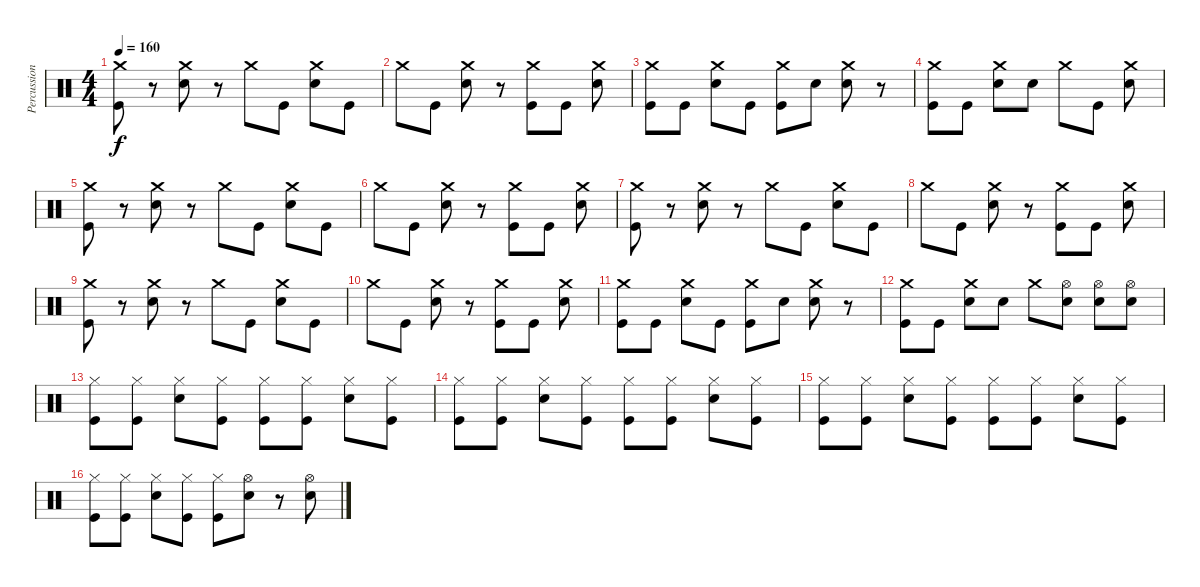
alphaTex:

\track ("Percussion" "Percussion") {instrument percussion}
\staff {score}
\articulation defaults
\ts (4 4)
\tempo 160
\clef neutral
\ks c
("Crash medium (hit)" "Kick (hit)").8{dy f} r.8 ("Crash medium (hit)" "Electric Snare (hit)").8 r.8 "Crash medium (hit)".8 "Kick (hit)".8 ("Crash medium (hit)" "Electric Snare (hit)").8 "Kick (hit)".8 |
"Crash medium (hit)".8 "Kick (hit)".8 ("Crash medium (hit)" "Electric Snare (hit)").8 r.8 ("Crash medium (hit)" "Kick (hit)").8 "Kick (hit)".8 ("Crash medium (hit)" "Electric Snare (hit)").8 |
("Crash medium (hit)" "Kick (hit)").8 "Kick (hit)".8 ("Crash medium (hit)" "Electric Snare (hit)").8 "Kick (hit)".8 ("Crash medium (hit)" "Kick (hit)").8 "Electric Snare (hit)".8 ("Crash medium (hit)" "Electric Snare (hit)").8 r.8 |
("Crash medium (hit)" "Kick (hit)").8 "Kick (hit)".8 ("Crash medium (hit)" "Electric Snare (hit)").8 "Electric Snare (hit)".8 "Crash medium (hit)".8 "Kick (hit)".8 ("Crash medium (hit)" "Electric Snare (hit)").8 |
("Crash medium (hit)" "Kick (hit)").8 r.8 ("Crash medium (hit)" "Electric Snare (hit)").8 r.8 "Crash medium (hit)".8 "Kick (hit)".8 ("Crash medium (hit)" "Electric Snare (hit)").8 "Kick (hit)".8 |
"Crash medium (hit)".8 "Kick (hit)".8 ("Crash medium (hit)" "Electric Snare (hit)").8 r.8 ("Crash medium (hit)" "Kick (hit)").8 "Kick (hit)".8 ("Crash medium (hit)" "Electric Snare (hit)").8 |
("Crash medium (hit)" "Kick (hit)").8 r.8 ("Crash medium (hit)" "Electric Snare (hit)").8 r.8 "Crash medium (hit)".8 "Kick (hit)".8 ("Crash medium (hit)" "Electric Snare (hit)").8 "Kick (hit)".8 |
"Crash medium (hit)".8 "Kick (hit)".8 ("Crash medium (hit)" "Electric Snare (hit)").8 r.8 ("Crash medium (hit)" "Kick (hit)").8 "Kick (hit)".8 ("Crash medium (hit)" "Electric Snare (hit)").8 |
("Crash medium (hit)" "Kick (hit)").8 r.8 ("Crash medium (hit)" "Electric Snare (hit)").8 r.8 "Crash medium (hit)".8 "Kick (hit)".8 ("Crash medium (hit)" "Electric Snare (hit)").8 "Kick (hit)".8 |
"Crash medium (hit)".8 "Kick (hit)".8 ("Crash medium (hit)" "Electric Snare (hit)").8 r.8 ("Crash medium (hit)" "Kick (hit)").8 "Kick (hit)".8 ("Crash medium (hit)" "Electric Snare (hit)").8 |
("Crash medium (hit)" "Kick (hit)").8 "Kick (hit)".8 ("Crash medium (hit)" "Electric Snare (hit)").8 "Kick (hit)".8 ("Crash medium (hit)" "Kick (hit)").8 "Electric Snare (hit)".8 ("Crash medium (hit)" "Electric Snare (hit)").8 r.8 |
("Crash medium (hit)" "Kick (hit)").8 "Kick (hit)".8 ("Crash medium (hit)" "Electric Snare (hit)").8 "Electric Snare (hit)".8 "Crash medium (hit)".8 ("Hi-Hat (open)" "Electric Snare (hit)").8 ("Hi-Hat (open)" "Electric Snare (hit)").8 ("Hi-Hat (open)" "Electric Snare (hit)").8 |
("Hi-Hat (closed)" "Kick (hit)").8 ("Hi-Hat (closed)" "Kick (hit)").8 ("Hi-Hat (closed)" "Electric Snare (hit)").8 ("Hi-Hat (closed)" "Kick (hit)").8 ("Hi-Hat (closed)" "Kick (hit)").8 ("Hi-Hat (closed)" "Kick (hit)").8 ("Hi-Hat (closed)" "Electric Snare (hit)").8 ("Hi-Hat (closed)" "Kick (hit)").8 |
("Hi-Hat (closed)" "Kick (hit)").8 ("Hi-Hat (closed)" "Kick (hit)").8 ("Hi-Hat (closed)" "Electric Snare (hit)").8 ("Hi-Hat (closed)" "Kick (hit)").8 ("Hi-Hat (closed)" "Kick (hit)").8 ("Hi-Hat (closed)" "Kick (hit)").8 ("Hi-Hat (closed)" "Electric Snare (hit)").8 ("Hi-Hat (closed)" "Kick (hit)").8 |
("Hi-Hat (closed)" "Kick (hit)").8 ("Hi-Hat (closed)" "Kick (hit)").8 ("Hi-Hat (closed)" "Electric Snare (hit)").8 ("Hi-Hat (closed)" "Kick (hit)").8 ("Hi-Hat (closed)" "Kick (hit)").8 ("Hi-Hat (closed)" "Kick (hit)").8 ("Hi-Hat (closed)" "Electric Snare (hit)").8 ("Hi-Hat (closed)" "Kick (hit)").8 |
("Hi-Hat (closed)" "Kick (hit)").8 ("Hi-Hat (closed)" "Kick (hit)").8 ("Hi-Hat (closed)" "Electric Snare (hit)").8 ("Hi-Hat (closed)" "Kick (hit)").8 ("Hi-Hat (closed)" "Kick (hit)").8 ("Hi-Hat (open)" "Electric Snare (hit)").8 r.8 ("Hi-Hat (open)" "Electric Snare (hit)").8
